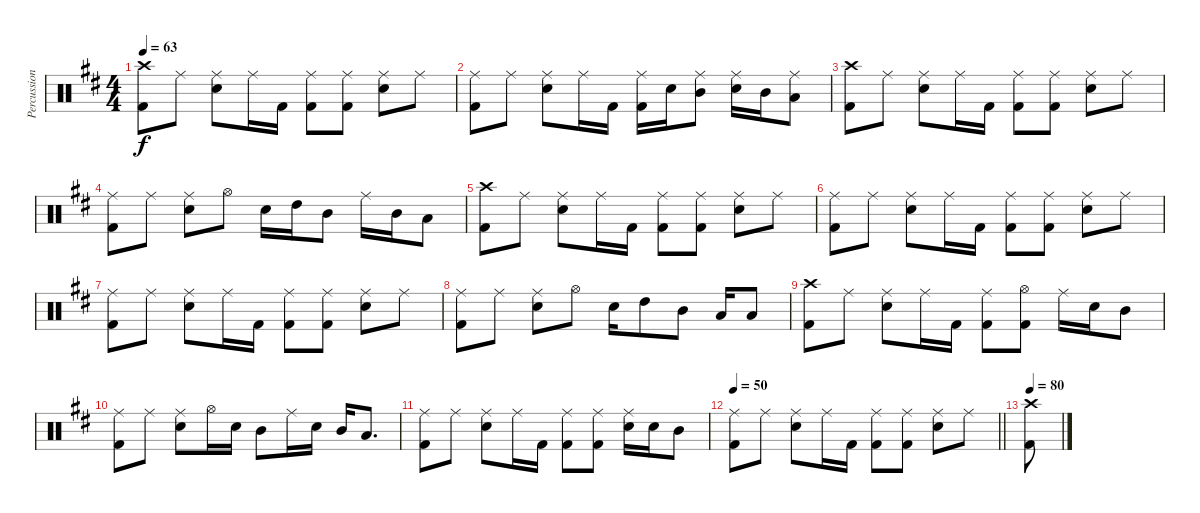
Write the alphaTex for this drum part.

\track ("Percussion" "Percussion") {instrument percussion}
\staff {score}
\articulation defaults
\ts (4 4)
\tempo 63
\clef neutral
\ks d
("Crash high (hit)" "Kick (hit) 2").8{dy f} "Ride (middle)".8 ("Ride (middle)" "Snare (hit) 2").8 "Ride (middle)".16 "Kick (hit) 2".16 ("Ride (middle)" "Kick (hit) 2").8 ("Ride (middle)" "Kick (hit) 2").8 ("Ride (middle)" "Snare (hit) 2").8 "Ride (middle)".8 |
("Ride (middle)" "Kick (hit) 2").8 "Ride (middle)".8 ("Ride (middle)" "Snare (hit) 2").8 "Ride (middle)".16 "Kick (hit) 2".16 ("Ride (middle)" "Kick (hit) 2").16 "Snare (hit) 2".16 ("Ride (middle)" "Mid Tom (hit)").8 ("Ride (middle)" "Snare (hit) 2").16 "Mid Tom (hit)".16 ("Ride (middle)" "Low Tom (hit)").8 |
("Crash high (hit)" "Kick (hit) 2").8 "Ride (middle)".8 ("Ride (middle)" "Snare (hit) 2").8 "Ride (middle)".16 "Kick (hit) 2".16 ("Ride (middle)" "Kick (hit) 2").8 ("Ride (middle)" "Kick (hit) 2").8 ("Ride (middle)" "Snare (hit) 2").8 "Ride (middle)".8 |
("Ride (middle)" "Kick (hit) 2").8 "Ride (middle)".8 ("Ride (middle)" "Snare (hit) 2").8 "Hi-Hat (open)".8 "Snare (hit) 2".16 "High Tom (hit)".16 "Mid Tom (hit)".8 "Ride (middle)".16 "Mid Tom (hit)".16 "Low Tom (hit)".8 |
("Crash high (hit)" "Kick (hit) 2").8 "Ride (middle)".8 ("Ride (middle)" "Snare (hit) 2").8 "Ride (middle)".16 "Kick (hit) 2".16 ("Ride (middle)" "Kick (hit) 2").8 ("Ride (middle)" "Kick (hit) 2").8 ("Ride (middle)" "Snare (hit) 2").8 "Ride (middle)".8 |
("Ride (middle)" "Kick (hit) 2").8 "Ride (middle)".8 ("Ride (middle)" "Snare (hit) 2").8 "Ride (middle)".16 "Kick (hit) 2".16 ("Ride (middle)" "Kick (hit) 2").8 ("Ride (middle)" "Kick (hit) 2").8 ("Ride (middle)" "Snare (hit) 2").8 "Ride (middle)".8 |
("Ride (middle)" "Kick (hit) 2").8 "Ride (middle)".8 ("Ride (middle)" "Snare (hit) 2").8 "Ride (middle)".16 "Kick (hit) 2".16 ("Ride (middle)" "Kick (hit) 2").8 ("Ride (middle)" "Kick (hit) 2").8 ("Ride (middle)" "Snare (hit) 2").8 "Ride (middle)".8 |
("Ride (middle)" "Kick (hit) 2").8 "Ride (middle)".8 ("Ride (middle)" "Snare (hit) 2").8 "Hi-Hat (open)".8 "Snare (hit) 2".16 "High Tom (hit)".8 "Mid Tom (hit)".8 "Low Tom (hit)".16 "Low Tom (hit)".8 |
("Crash high (hit)" "Kick (hit) 2").8{volume 9} "Ride (middle)".8 ("Ride (middle)" "Snare (hit) 2").8 "Ride (middle)".16 "Kick (hit) 2".16 ("Ride (middle)" "Kick (hit) 2").8 ("Hi-Hat (open)" "Kick (hit) 2").8 "Ride (middle)".16 "Snare (hit) 2".16 "Mid Tom (hit)".8 |
("Ride (middle)" "Kick (hit) 2").8 "Ride (middle)".8 ("Ride (middle)" "Snare (hit) 2").8 "Hi-Hat (open)".16 "Snare (hit) 2".16 "Mid Tom (hit)".8 "Ride (middle)".16 "Snare (hit) 2".16 "Mid Tom (hit)".16 "Low Tom (hit)".8{d} |
("Ride (middle)" "Kick (hit) 2").8 "Ride (middle)".8 ("Ride (middle)" "Snare (hit) 2").8 "Ride (middle)".16 "Kick (hit) 2".16 ("Ride (middle)" "Kick (hit) 2").8 ("Ride (middle)" "Kick (hit) 2").8 ("Ride (middle)" "Snare (hit) 2").16 "Snare (hit) 2".16 "Mid Tom (hit)".8 |
\tempo 50
\barLineRight lightlight
("Ride (middle)" "Kick (hit) 2").8 "Ride (middle)".8 ("Ride (middle)" "Snare (hit) 2").8 "Ride (middle)".16 "Kick (hit) 2".16 ("Ride (middle)" "Kick (hit) 2").8 ("Ride (middle)" "Kick (hit) 2").8 ("Ride (middle)" "Snare (hit) 2").8 "Ride (middle)".8 |
\tempo 80
("Crash high (hit)" "Kick (hit) 2").8
